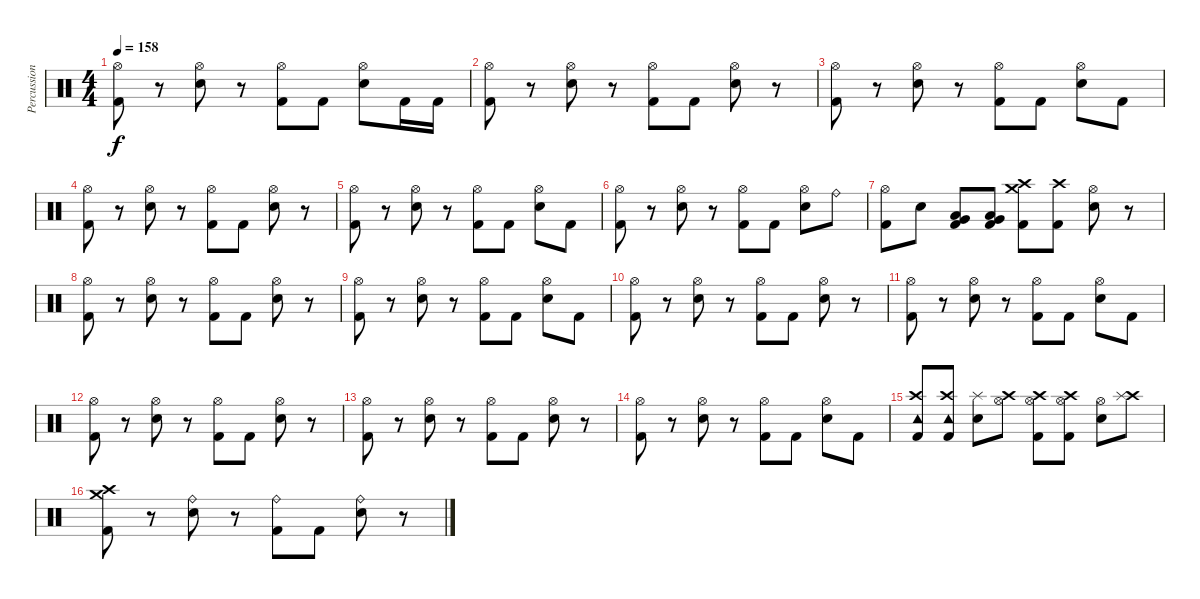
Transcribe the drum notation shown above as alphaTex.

\track ("Percussion" "Percussion") {instrument percussion}
\staff {score}
\articulation defaults
\ts (4 4)
\tempo 158
\clef neutral
\ks c
("Hi-Hat (open)" "Kick (hit) 2").8{dy f} r.8 ("Hi-Hat (open)" "Snare (hit) 2").8 r.8 ("Hi-Hat (open)" "Kick (hit) 2").8 "Kick (hit) 2".8 ("Hi-Hat (open)" "Snare (hit) 2").8 "Kick (hit) 2".16 "Kick (hit) 2".16 |
("Hi-Hat (open)" "Kick (hit) 2").8 r.8 ("Hi-Hat (open)" "Snare (hit) 2").8 r.8 ("Hi-Hat (open)" "Kick (hit) 2").8 "Kick (hit) 2".8 ("Hi-Hat (open)" "Snare (hit) 2").8 r.8 |
("Hi-Hat (open)" "Kick (hit) 2").8 r.8 ("Hi-Hat (open)" "Snare (hit) 2").8 r.8 ("Hi-Hat (open)" "Kick (hit) 2").8 "Kick (hit) 2".8 ("Hi-Hat (open)" "Snare (hit) 2").8 "Kick (hit) 2".8 |
("Hi-Hat (open)" "Kick (hit) 2").8 r.8 ("Hi-Hat (open)" "Snare (hit) 2").8 r.8 ("Hi-Hat (open)" "Kick (hit) 2").8 "Kick (hit) 2".8 ("Hi-Hat (open)" "Snare (hit) 2").8 r.8 |
("Hi-Hat (open)" "Kick (hit) 2").8 r.8 ("Hi-Hat (open)" "Snare (hit) 2").8 r.8 ("Hi-Hat (open)" "Kick (hit) 2").8 "Kick (hit) 2".8 ("Hi-Hat (open)" "Snare (hit) 2").8 "Kick (hit) 2".8 |
("Hi-Hat (open)" "Kick (hit) 2").8 r.8 ("Hi-Hat (open)" "Snare (hit) 2").8 r.8 ("Hi-Hat (open)" "Kick (hit) 2").8 "Kick (hit) 2".8 ("Hi-Hat (open)" "Snare (hit) 2").8 "Ride (bell)".8 |
("Hi-Hat (open)" "Kick (hit) 2").8 "Snare (hit) 2".8 ("Low Tom (hit)" "Very Low Tom (hit)" "Kick (hit) 2").8 ("Very Low Tom (hit)" "Low Floor Tom (hit)" "Kick (hit) 2").8 ("Crash high (hit)" "Crash medium (hit)" "Kick (hit) 2").8 ("Crash high (hit)" "Kick (hit) 2").8 ("Hi-Hat (open)" "Snare (hit) 2").8 r.8 |
("Hi-Hat (open)" "Kick (hit) 2").8 r.8 ("Hi-Hat (open)" "Snare (hit) 2").8 r.8 ("Hi-Hat (open)" "Kick (hit) 2").8 "Kick (hit) 2".8 ("Hi-Hat (open)" "Snare (hit) 2").8 r.8 |
("Hi-Hat (open)" "Kick (hit) 2").8 r.8 ("Hi-Hat (open)" "Snare (hit) 2").8 r.8 ("Hi-Hat (open)" "Kick (hit) 2").8 "Kick (hit) 2".8 ("Hi-Hat (open)" "Snare (hit) 2").8 "Kick (hit) 2".8 |
("Hi-Hat (open)" "Kick (hit) 2").8 r.8 ("Hi-Hat (open)" "Snare (hit) 2").8 r.8 ("Hi-Hat (open)" "Kick (hit) 2").8 "Kick (hit) 2".8 ("Hi-Hat (open)" "Snare (hit) 2").8 r.8 |
("Hi-Hat (open)" "Kick (hit) 2").8 r.8 ("Hi-Hat (open)" "Snare (hit) 2").8 r.8 ("Hi-Hat (open)" "Kick (hit) 2").8 "Kick (hit) 2".8 ("Hi-Hat (open)" "Snare (hit) 2").8 "Kick (hit) 2".8 |
("Hi-Hat (open)" "Kick (hit) 2").8 r.8 ("Hi-Hat (open)" "Snare (hit) 2").8 r.8 ("Hi-Hat (open)" "Kick (hit) 2").8 "Kick (hit) 2".8 ("Hi-Hat (open)" "Snare (hit) 2").8 r.8 |
("Hi-Hat (open)" "Kick (hit) 2").8 r.8 ("Hi-Hat (open)" "Snare (hit) 2").8 r.8 ("Hi-Hat (open)" "Kick (hit) 2").8 "Kick (hit) 2".8 ("Hi-Hat (open)" "Snare (hit) 2").8 r.8 |
("Hi-Hat (open)" "Kick (hit) 2").8 r.8 ("Hi-Hat (open)" "Snare (hit) 2").8 r.8 ("Hi-Hat (open)" "Kick (hit) 2").8 "Kick (hit) 2".8 ("Hi-Hat (open)" "Snare (hit) 2").8 "Kick (hit) 2".8 |
("Crash high (hit)" "Tambourine (hit)" "Kick (hit) 2").8 ("Crash high (hit)" "Tambourine (hit)" "Kick (hit) 2").8 ("Splash (hit)" "Snare (hit) 2").8 ("Crash high (hit)" "Hi-Hat (open)").8 ("Crash high (hit)" "Hi-Hat (open)" "Kick (hit) 2").8 ("Crash high (hit)" "Hi-Hat (open)" "Kick (hit) 2").8 ("Hi-Hat (open)" "Snare (hit) 2").8 ("Crash high (hit)" "Splash (hit)").8 |
("Crash high (hit)" "Crash medium (hit)" "Kick (hit) 2").8 r.8 ("Ride (bell)" "Snare (hit) 2").8 r.8 ("Ride (bell)" "Kick (hit) 2").8 "Kick (hit) 2".8 ("Ride (bell)" "Snare (hit) 2").8 r.8
